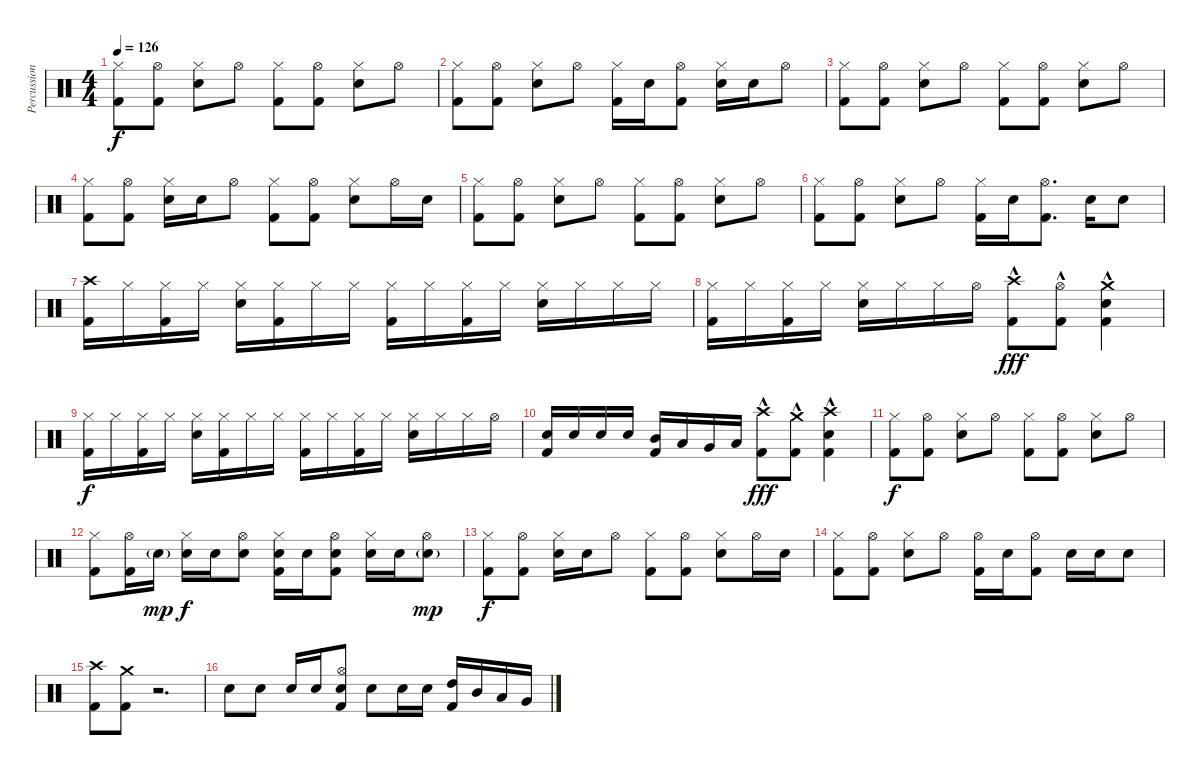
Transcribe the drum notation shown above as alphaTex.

\track ("Percussion" "Percussion") {instrument percussion}
\staff {score}
\articulation defaults
\ts (4 4)
\tempo 126
\clef neutral
\ks c
("Hi-Hat (closed)" "Kick (hit) 2").8{dy f} ("Hi-Hat (open)" "Kick (hit) 2").8 ("Hi-Hat (closed)" "Electric Snare (hit)").8 "Hi-Hat (open)".8 ("Hi-Hat (closed)" "Kick (hit) 2").8 ("Hi-Hat (open)" "Kick (hit) 2").8 ("Hi-Hat (closed)" "Electric Snare (hit)").8 "Hi-Hat (open)".8 |
("Hi-Hat (closed)" "Kick (hit) 2").8 ("Hi-Hat (open)" "Kick (hit) 2").8 ("Hi-Hat (closed)" "Electric Snare (hit)").8 "Hi-Hat (open)".8 ("Hi-Hat (closed)" "Kick (hit) 2").16 "Electric Snare (hit)".16 ("Hi-Hat (open)" "Kick (hit) 2").8 ("Hi-Hat (closed)" "Electric Snare (hit)").16 "Electric Snare (hit)".16 "Hi-Hat (open)".8 |
("Hi-Hat (closed)" "Kick (hit) 2").8 ("Hi-Hat (open)" "Kick (hit) 2").8 ("Hi-Hat (closed)" "Electric Snare (hit)").8 "Hi-Hat (open)".8 ("Hi-Hat (closed)" "Kick (hit) 2").8 ("Hi-Hat (open)" "Kick (hit) 2").8 ("Hi-Hat (closed)" "Electric Snare (hit)").8 "Hi-Hat (open)".8 |
("Hi-Hat (closed)" "Kick (hit) 2").8 ("Hi-Hat (open)" "Kick (hit) 2").8 ("Hi-Hat (closed)" "Electric Snare (hit)").16 "Electric Snare (hit)".16 "Hi-Hat (open)".8 ("Hi-Hat (closed)" "Kick (hit) 2").8 ("Hi-Hat (open)" "Kick (hit) 2").8 ("Hi-Hat (closed)" "Electric Snare (hit)").8 "Hi-Hat (open)".16 "Electric Snare (hit)".16 |
("Hi-Hat (closed)" "Kick (hit) 2").8 ("Hi-Hat (open)" "Kick (hit) 2").8 ("Hi-Hat (closed)" "Electric Snare (hit)").8 "Hi-Hat (open)".8 ("Hi-Hat (closed)" "Kick (hit) 2").8 ("Hi-Hat (open)" "Kick (hit) 2").8 ("Hi-Hat (closed)" "Electric Snare (hit)").8 "Hi-Hat (open)".8 |
("Hi-Hat (closed)" "Kick (hit) 2").8 ("Hi-Hat (open)" "Kick (hit) 2").8 ("Hi-Hat (closed)" "Electric Snare (hit)").8 "Hi-Hat (open)".8 ("Hi-Hat (closed)" "Kick (hit) 2").16 "Electric Snare (hit)".16 ("Hi-Hat (open)" "Kick (hit) 2").8{d} "Electric Snare (hit)".16 "Electric Snare (hit)".8 |
("Crash high (hit)" "Kick (hit) 2").16 "Hi-Hat (closed)".16 ("Hi-Hat (closed)" "Kick (hit) 2").16 "Hi-Hat (closed)".16 ("Hi-Hat (closed)" "Electric Snare (hit)").16 ("Hi-Hat (closed)" "Kick (hit) 2").16 "Hi-Hat (closed)".16 "Hi-Hat (closed)".16 ("Hi-Hat (closed)" "Kick (hit) 2").16 "Hi-Hat (closed)".16 ("Hi-Hat (closed)" "Kick (hit) 2").16 "Hi-Hat (closed)".16 ("Hi-Hat (closed)" "Electric Snare (hit)").16 "Hi-Hat (closed)".16 "Hi-Hat (closed)".16 "Hi-Hat (closed)".16 |
("Hi-Hat (closed)" "Kick (hit) 2").16 "Hi-Hat (closed)".16 ("Hi-Hat (closed)" "Kick (hit) 2").16 "Hi-Hat (closed)".16 ("Hi-Hat (closed)" "Electric Snare (hit)").16 "Hi-Hat (closed)".16 "Hi-Hat (closed)".16 "Hi-Hat (open)".16 ("Crash high (hit)"{hac} "Kick (hit) 2").8{dy fff} ("Hi-Hat (open)"{hac} "Kick (hit) 2").8 ("Crash medium (hit)"{hac} "Electric Snare (hit)"{hac} "Kick (hit) 2").4 |
("Hi-Hat (closed)" "Kick (hit) 2").16{dy f} "Hi-Hat (closed)".16 ("Hi-Hat (closed)" "Kick (hit) 2").16 "Hi-Hat (closed)".16 ("Hi-Hat (closed)" "Electric Snare (hit)").16 ("Hi-Hat (closed)" "Kick (hit) 2").16 "Hi-Hat (closed)".16 "Hi-Hat (closed)".16 ("Hi-Hat (closed)" "Kick (hit) 2").16 "Hi-Hat (closed)".16 ("Hi-Hat (closed)" "Kick (hit) 2").16 "Hi-Hat (closed)".16 ("Hi-Hat (closed)" "Electric Snare (hit)").16 "Hi-Hat (closed)".16 "Hi-Hat (closed)".16 "Hi-Hat (open)".16 |
("Electric Snare (hit)" "Kick (hit) 2").16 "Electric Snare (hit)".16 "Electric Snare (hit)".16 "Electric Snare (hit)".16 ("Mid Tom (hit)" "Kick (hit) 2").16 "Low Tom (hit)".16 "Very Low Tom (hit)".16 "Low Floor Tom (hit)".16 ("Crash high (hit)"{hac} "Kick (hit) 2").8{dy fff} ("Crash medium (hit)"{hac} "Kick (hit) 2").8 ("Crash high (hit)"{hac} "Electric Snare (hit)" "Kick (hit) 2").4 |
("Hi-Hat (closed)" "Kick (hit) 2").8{dy f} ("Hi-Hat (open)" "Kick (hit) 2").8 ("Hi-Hat (closed)" "Electric Snare (hit)").8 "Hi-Hat (open)".8 ("Hi-Hat (closed)" "Kick (hit) 2").8 ("Hi-Hat (open)" "Kick (hit) 2").8 ("Hi-Hat (closed)" "Electric Snare (hit)").8 "Hi-Hat (open)".8 |
("Hi-Hat (closed)" "Kick (hit) 2").8 ("Hi-Hat (open)" "Kick (hit) 2").16 "Electric Snare (hit)"{g}.16{dy mp} ("Hi-Hat (closed)" "Electric Snare (hit)").16{dy f} "Electric Snare (hit)".16 ("Hi-Hat (open)" "Electric Snare (hit)").8 ("Hi-Hat (closed)" "Electric Snare (hit)" "Kick (hit) 2").16 "Electric Snare (hit)".16 ("Hi-Hat (open)" "Electric Snare (hit)" "Kick (hit) 2").8 ("Hi-Hat (closed)" "Electric Snare (hit)").16 "Electric Snare (hit)".16 ("Hi-Hat (open)" "Electric Snare (hit)"{g}).8{dy mp} |
("Hi-Hat (closed)" "Kick (hit) 2").8{dy f} ("Hi-Hat (open)" "Kick (hit) 2").8 ("Hi-Hat (closed)" "Electric Snare (hit)").16 "Electric Snare (hit)".16 "Hi-Hat (open)".8 ("Hi-Hat (closed)" "Kick (hit) 2").8 ("Hi-Hat (open)" "Kick (hit) 2").8 ("Hi-Hat (closed)" "Electric Snare (hit)").8 "Hi-Hat (open)".16 "Electric Snare (hit)".16 |
("Hi-Hat (closed)" "Kick (hit) 2").8 ("Hi-Hat (open)" "Kick (hit) 2").8 ("Hi-Hat (closed)" "Electric Snare (hit)").8 "Hi-Hat (open)".8 ("Hi-Hat (open)" "Kick (hit) 2").16 "Electric Snare (hit)".16 ("Hi-Hat (open)" "Kick (hit) 2").8 "Electric Snare (hit)".16 "Electric Snare (hit)".16 "Electric Snare (hit)".8 |
("Crash high (hit)" "Kick (hit) 2").8 ("Crash medium (hit)" "Kick (hit) 2").8 r.2{d} |
"Electric Snare (hit)".8 "Electric Snare (hit)".8 "Electric Snare (hit)".16 "Electric Snare (hit)".16 ("Hi-Hat (open)" "Electric Snare (hit)" "Kick (hit) 2").8 "Electric Snare (hit)".8 "Electric Snare (hit)".16 "Electric Snare (hit)".16 ("High Tom (hit)" "Kick (hit) 2").16 "Mid Tom (hit)".16 "Low Tom (hit)".16 "Very Low Tom (hit)".16
